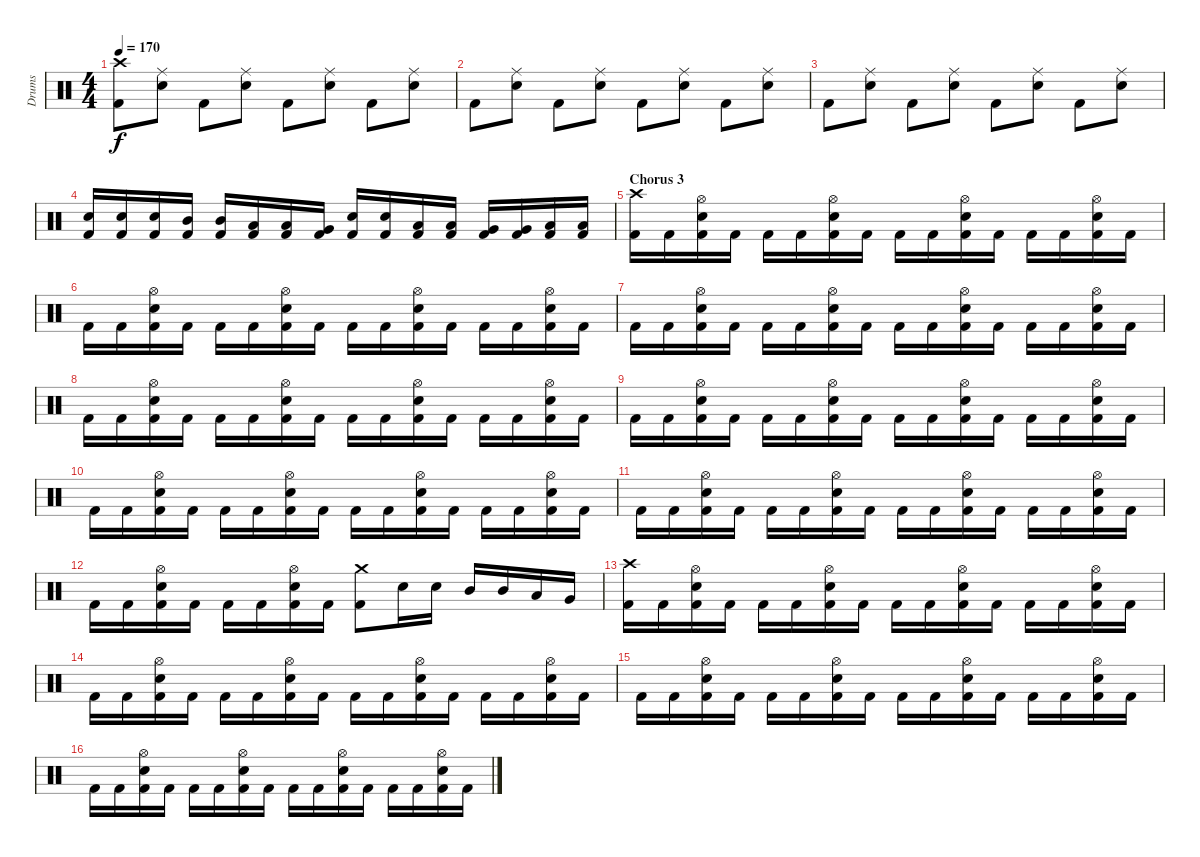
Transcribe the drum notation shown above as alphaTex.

\track ("Drums" "Drums") {instrument percussion}
\staff {score}
\articulation defaults
\ts (4 4)
\tempo 170
\clef neutral
\ks c
("Crash high (hit)" "Kick (hit) 2").8{dy f} ("Ride (middle)" "Snare (hit) 2").8 "Kick (hit) 2".8 ("Ride (middle)" "Snare (hit) 2").8 "Kick (hit) 2".8 ("Ride (middle)" "Snare (hit) 2").8 "Kick (hit) 2".8 ("Ride (middle)" "Snare (hit) 2").8 |
"Kick (hit) 2".8 ("Ride (middle)" "Snare (hit) 2").8 "Kick (hit) 2".8 ("Ride (middle)" "Snare (hit) 2").8 "Kick (hit) 2".8 ("Ride (middle)" "Snare (hit) 2").8 "Kick (hit) 2".8 ("Ride (middle)" "Snare (hit) 2").8 |
"Kick (hit) 2".8 ("Ride (middle)" "Snare (hit) 2").8 "Kick (hit) 2".8 ("Ride (middle)" "Snare (hit) 2").8 "Kick (hit) 2".8 ("Ride (middle)" "Snare (hit) 2").8 "Kick (hit) 2".8 ("Ride (middle)" "Snare (hit) 2").8 |
("Snare (hit) 2" "Kick (hit) 2").16 ("Snare (hit) 2" "Kick (hit) 2").16 ("Snare (hit) 2" "Kick (hit) 2").16 ("Mid Tom (hit)" "Kick (hit) 2").16 ("Mid Tom (hit)" "Kick (hit) 2").16 ("Low Tom (hit)" "Kick (hit) 2").16 ("Low Tom (hit)" "Kick (hit) 2").16 ("Very Low Tom (hit)" "Kick (hit) 2").16 ("Snare (hit) 2" "Kick (hit) 2").16 ("Snare (hit) 2" "Kick (hit) 2").16 ("Low Tom (hit)" "Kick (hit) 2").16 ("Low Tom (hit)" "Kick (hit) 2").16 ("Very Low Tom (hit)" "Kick (hit) 2").16 ("Very Low Tom (hit)" "Kick (hit) 2").16 ("Low Floor Tom (hit)" "Kick (hit) 2").16 ("Low Floor Tom (hit)" "Kick (hit) 2").16 |
\section ("" "Chorus 3")
("Crash high (hit)" "Kick (hit) 2").16 "Kick (hit) 2".16 ("Hi-Hat (open)" "Snare (hit) 2" "Kick (hit) 2").16 "Kick (hit) 2".16 "Kick (hit) 2".16 "Kick (hit) 2".16 ("Hi-Hat (open)" "Snare (hit) 2" "Kick (hit) 2").16 "Kick (hit) 2".16 "Kick (hit) 2".16 "Kick (hit) 2".16 ("Hi-Hat (open)" "Snare (hit) 2" "Kick (hit) 2").16 "Kick (hit) 2".16 "Kick (hit) 2".16 "Kick (hit) 2".16 ("Hi-Hat (open)" "Snare (hit) 2" "Kick (hit) 2").16 "Kick (hit) 2".16 |
"Kick (hit) 2".16 "Kick (hit) 2".16 ("Hi-Hat (open)" "Snare (hit) 2" "Kick (hit) 2").16 "Kick (hit) 2".16 "Kick (hit) 2".16 "Kick (hit) 2".16 ("Hi-Hat (open)" "Snare (hit) 2" "Kick (hit) 2").16 "Kick (hit) 2".16 "Kick (hit) 2".16 "Kick (hit) 2".16 ("Hi-Hat (open)" "Snare (hit) 2" "Kick (hit) 2").16 "Kick (hit) 2".16 "Kick (hit) 2".16 "Kick (hit) 2".16 ("Hi-Hat (open)" "Snare (hit) 2" "Kick (hit) 2").16 "Kick (hit) 2".16 |
"Kick (hit) 2".16 "Kick (hit) 2".16 ("Hi-Hat (open)" "Snare (hit) 2" "Kick (hit) 2").16 "Kick (hit) 2".16 "Kick (hit) 2".16 "Kick (hit) 2".16 ("Hi-Hat (open)" "Snare (hit) 2" "Kick (hit) 2").16 "Kick (hit) 2".16 "Kick (hit) 2".16 "Kick (hit) 2".16 ("Hi-Hat (open)" "Snare (hit) 2" "Kick (hit) 2").16 "Kick (hit) 2".16 "Kick (hit) 2".16 "Kick (hit) 2".16 ("Hi-Hat (open)" "Snare (hit) 2" "Kick (hit) 2").16 "Kick (hit) 2".16 |
"Kick (hit) 2".16 "Kick (hit) 2".16 ("Hi-Hat (open)" "Snare (hit) 2" "Kick (hit) 2").16 "Kick (hit) 2".16 "Kick (hit) 2".16 "Kick (hit) 2".16 ("Hi-Hat (open)" "Snare (hit) 2" "Kick (hit) 2").16 "Kick (hit) 2".16 "Kick (hit) 2".16 "Kick (hit) 2".16 ("Hi-Hat (open)" "Snare (hit) 2" "Kick (hit) 2").16 "Kick (hit) 2".16 "Kick (hit) 2".16 "Kick (hit) 2".16 ("Hi-Hat (open)" "Snare (hit) 2" "Kick (hit) 2").16 "Kick (hit) 2".16 |
"Kick (hit) 2".16 "Kick (hit) 2".16 ("Hi-Hat (open)" "Snare (hit) 2" "Kick (hit) 2").16 "Kick (hit) 2".16 "Kick (hit) 2".16 "Kick (hit) 2".16 ("Hi-Hat (open)" "Snare (hit) 2" "Kick (hit) 2").16 "Kick (hit) 2".16 "Kick (hit) 2".16 "Kick (hit) 2".16 ("Hi-Hat (open)" "Snare (hit) 2" "Kick (hit) 2").16 "Kick (hit) 2".16 "Kick (hit) 2".16 "Kick (hit) 2".16 ("Hi-Hat (open)" "Snare (hit) 2" "Kick (hit) 2").16 "Kick (hit) 2".16 |
"Kick (hit) 2".16 "Kick (hit) 2".16 ("Hi-Hat (open)" "Snare (hit) 2" "Kick (hit) 2").16 "Kick (hit) 2".16 "Kick (hit) 2".16 "Kick (hit) 2".16 ("Hi-Hat (open)" "Snare (hit) 2" "Kick (hit) 2").16 "Kick (hit) 2".16 "Kick (hit) 2".16 "Kick (hit) 2".16 ("Hi-Hat (open)" "Snare (hit) 2" "Kick (hit) 2").16 "Kick (hit) 2".16 "Kick (hit) 2".16 "Kick (hit) 2".16 ("Hi-Hat (open)" "Snare (hit) 2" "Kick (hit) 2").16 "Kick (hit) 2".16 |
"Kick (hit) 2".16 "Kick (hit) 2".16 ("Hi-Hat (open)" "Snare (hit) 2" "Kick (hit) 2").16 "Kick (hit) 2".16 "Kick (hit) 2".16 "Kick (hit) 2".16 ("Hi-Hat (open)" "Snare (hit) 2" "Kick (hit) 2").16 "Kick (hit) 2".16 "Kick (hit) 2".16 "Kick (hit) 2".16 ("Hi-Hat (open)" "Snare (hit) 2" "Kick (hit) 2").16 "Kick (hit) 2".16 "Kick (hit) 2".16 "Kick (hit) 2".16 ("Hi-Hat (open)" "Snare (hit) 2" "Kick (hit) 2").16 "Kick (hit) 2".16 |
"Kick (hit) 2".16 "Kick (hit) 2".16 ("Hi-Hat (open)" "Snare (hit) 2" "Kick (hit) 2").16 "Kick (hit) 2".16 "Kick (hit) 2".16 "Kick (hit) 2".16 ("Hi-Hat (open)" "Snare (hit) 2" "Kick (hit) 2").16 "Kick (hit) 2".16 ("Crash medium (hit)" "Kick (hit) 2").8 "Snare (hit) 2".16 "Snare (hit) 2".16 "Mid Tom (hit)".16 "Mid Tom (hit)".16 "Low Tom (hit)".16 "Very Low Tom (hit)".16 |
("Crash high (hit)" "Kick (hit) 2").16 "Kick (hit) 2".16 ("Hi-Hat (open)" "Snare (hit) 2" "Kick (hit) 2").16 "Kick (hit) 2".16 "Kick (hit) 2".16 "Kick (hit) 2".16 ("Hi-Hat (open)" "Snare (hit) 2" "Kick (hit) 2").16 "Kick (hit) 2".16 "Kick (hit) 2".16 "Kick (hit) 2".16 ("Hi-Hat (open)" "Snare (hit) 2" "Kick (hit) 2").16 "Kick (hit) 2".16 "Kick (hit) 2".16 "Kick (hit) 2".16 ("Hi-Hat (open)" "Snare (hit) 2" "Kick (hit) 2").16 "Kick (hit) 2".16 |
"Kick (hit) 2".16 "Kick (hit) 2".16 ("Hi-Hat (open)" "Snare (hit) 2" "Kick (hit) 2").16 "Kick (hit) 2".16 "Kick (hit) 2".16 "Kick (hit) 2".16 ("Hi-Hat (open)" "Snare (hit) 2" "Kick (hit) 2").16 "Kick (hit) 2".16 "Kick (hit) 2".16 "Kick (hit) 2".16 ("Hi-Hat (open)" "Snare (hit) 2" "Kick (hit) 2").16 "Kick (hit) 2".16 "Kick (hit) 2".16 "Kick (hit) 2".16 ("Hi-Hat (open)" "Snare (hit) 2" "Kick (hit) 2").16 "Kick (hit) 2".16 |
"Kick (hit) 2".16 "Kick (hit) 2".16 ("Hi-Hat (open)" "Snare (hit) 2" "Kick (hit) 2").16 "Kick (hit) 2".16 "Kick (hit) 2".16 "Kick (hit) 2".16 ("Hi-Hat (open)" "Snare (hit) 2" "Kick (hit) 2").16 "Kick (hit) 2".16 "Kick (hit) 2".16 "Kick (hit) 2".16 ("Hi-Hat (open)" "Snare (hit) 2" "Kick (hit) 2").16 "Kick (hit) 2".16 "Kick (hit) 2".16 "Kick (hit) 2".16 ("Hi-Hat (open)" "Snare (hit) 2" "Kick (hit) 2").16 "Kick (hit) 2".16 |
"Kick (hit) 2".16 "Kick (hit) 2".16 ("Hi-Hat (open)" "Snare (hit) 2" "Kick (hit) 2").16 "Kick (hit) 2".16 "Kick (hit) 2".16 "Kick (hit) 2".16 ("Hi-Hat (open)" "Snare (hit) 2" "Kick (hit) 2").16 "Kick (hit) 2".16 "Kick (hit) 2".16 "Kick (hit) 2".16 ("Hi-Hat (open)" "Snare (hit) 2" "Kick (hit) 2").16 "Kick (hit) 2".16 "Kick (hit) 2".16 "Kick (hit) 2".16 ("Hi-Hat (open)" "Snare (hit) 2" "Kick (hit) 2").16 "Kick (hit) 2".16
